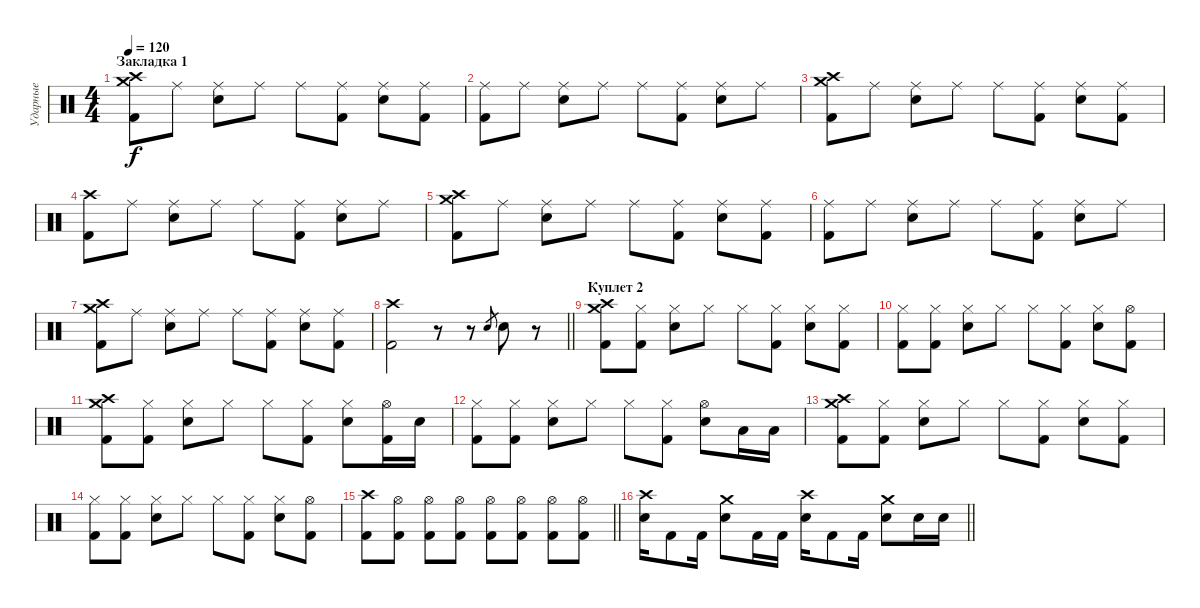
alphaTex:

\track ("Ударные" "Ударные") {instrument percussion}
\staff
\articulation defaults
\ts (4 4)
\section ("" "Закладка 1")
\tempo 120
\clef neutral
\ks c
("Crash medium (hit)" "Crash high (hit)" "Kick (hit) 2").8{dy f} "Ride (middle)".8 ("Ride (middle)" "Electric Snare (hit)").8 "Ride (middle)".8 "Ride (middle)".8 ("Ride (middle)" "Kick (hit) 2").8 ("Ride (middle)" "Electric Snare (hit)").8 ("Ride (middle)" "Kick (hit) 2").8 |
("Ride (middle)" "Kick (hit) 2").8 "Ride (middle)".8 ("Ride (middle)" "Electric Snare (hit)").8 "Ride (middle)".8 "Ride (middle)".8 ("Ride (middle)" "Kick (hit) 2").8 ("Ride (middle)" "Electric Snare (hit)").8 "Ride (middle)".8 |
("Crash medium (hit)" "Crash high (hit)" "Kick (hit) 2").8 "Ride (middle)".8 ("Ride (middle)" "Electric Snare (hit)").8 "Ride (middle)".8 "Ride (middle)".8 ("Ride (middle)" "Kick (hit) 2").8 ("Ride (middle)" "Electric Snare (hit)").8 ("Ride (middle)" "Kick (hit) 2").8 |
("Crash high (hit)" "Kick (hit) 2").8 "Ride (middle)".8 ("Ride (middle)" "Electric Snare (hit)").8 "Ride (middle)".8 "Ride (middle)".8 ("Ride (middle)" "Kick (hit) 2").8 ("Ride (middle)" "Electric Snare (hit)").8 "Ride (middle)".8 |
("Crash medium (hit)" "Crash high (hit)" "Kick (hit) 2").8 "Ride (middle)".8 ("Ride (middle)" "Electric Snare (hit)").8 "Ride (middle)".8 "Ride (middle)".8 ("Ride (middle)" "Kick (hit) 2").8 ("Ride (middle)" "Electric Snare (hit)").8 ("Ride (middle)" "Kick (hit) 2").8 |
("Ride (middle)" "Kick (hit) 2").8 "Ride (middle)".8 ("Ride (middle)" "Electric Snare (hit)").8 "Ride (middle)".8 "Ride (middle)".8 ("Ride (middle)" "Kick (hit) 2").8 ("Ride (middle)" "Electric Snare (hit)").8 "Ride (middle)".8 |
("Crash medium (hit)" "Crash high (hit)" "Kick (hit) 2").8 "Ride (middle)".8 ("Ride (middle)" "Electric Snare (hit)").8 "Ride (middle)".8 "Ride (middle)".8 ("Ride (middle)" "Kick (hit) 2").8 ("Ride (middle)" "Electric Snare (hit)").8 ("Ride (middle)" "Kick (hit) 2").8 |
\barLineRight lightlight
("Crash high (hit)" "Kick (hit) 2").2 r.8 r.8 "Electric Snare (hit)".8{gr} "Electric Snare (hit)".8 r.8 |
\section ("" "Куплет 2")
("Crash high (hit)" "Crash medium (hit)" "Kick (hit) 2").8 ("Hi-Hat (closed)" "Kick (hit) 2").8 ("Hi-Hat (closed)" "Electric Snare (hit)").8 "Hi-Hat (closed)".8 "Hi-Hat (closed)".8 ("Hi-Hat (closed)" "Kick (hit) 2").8 ("Hi-Hat (closed)" "Electric Snare (hit)").8 ("Hi-Hat (closed)" "Kick (hit) 2").8 |
("Hi-Hat (closed)" "Kick (hit) 2").8 ("Hi-Hat (closed)" "Kick (hit) 2").8 ("Hi-Hat (closed)" "Electric Snare (hit)").8 "Hi-Hat (closed)".8 "Hi-Hat (closed)".8 ("Hi-Hat (closed)" "Kick (hit) 2").8 ("Hi-Hat (closed)" "Electric Snare (hit)").8 ("Hi-Hat (open)" "Kick (hit) 2").8 |
("Crash high (hit)" "Crash medium (hit)" "Kick (hit) 2").8 ("Hi-Hat (closed)" "Kick (hit) 2").8 ("Hi-Hat (closed)" "Electric Snare (hit)").8 "Hi-Hat (closed)".8 "Hi-Hat (closed)".8 ("Hi-Hat (closed)" "Kick (hit) 2").8 ("Hi-Hat (closed)" "Electric Snare (hit)").8 ("Hi-Hat (open)" "Kick (hit) 2").16 "Electric Snare (hit)".16 |
("Hi-Hat (closed)" "Kick (hit) 2").8 ("Hi-Hat (closed)" "Kick (hit) 2").8 ("Hi-Hat (closed)" "Electric Snare (hit)").8 "Hi-Hat (closed)".8 "Hi-Hat (closed)".8 ("Hi-Hat (closed)" "Kick (hit) 2").8 ("Hi-Hat (open)" "Electric Snare (hit)").8 "Low Tom (hit)".16 "Low Tom (hit)".16 |
("Crash high (hit)" "Crash medium (hit)" "Kick (hit) 2").8 ("Hi-Hat (closed)" "Kick (hit) 2").8 ("Hi-Hat (closed)" "Electric Snare (hit)").8 "Hi-Hat (closed)".8 "Hi-Hat (closed)".8 ("Hi-Hat (closed)" "Kick (hit) 2").8 ("Hi-Hat (closed)" "Electric Snare (hit)").8 ("Hi-Hat (closed)" "Kick (hit) 2").8 |
("Hi-Hat (closed)" "Kick (hit) 2").8 ("Hi-Hat (closed)" "Kick (hit) 2").8 ("Hi-Hat (closed)" "Electric Snare (hit)").8 "Hi-Hat (closed)".8 "Hi-Hat (closed)".8 ("Hi-Hat (closed)" "Kick (hit) 2").8 ("Hi-Hat (closed)" "Electric Snare (hit)").8 ("Hi-Hat (open)" "Kick (hit) 2").8 |
\barLineRight lightlight
("Crash high (hit)" "Kick (hit) 2").8 ("Hi-Hat (open)" "Kick (hit) 2").8 ("Hi-Hat (open)" "Kick (hit) 2").8 ("Hi-Hat (open)" "Kick (hit) 2").8 ("Hi-Hat (open)" "Kick (hit) 2").8 ("Hi-Hat (open)" "Kick (hit) 2").8 ("Hi-Hat (open)" "Kick (hit) 2").8 ("Hi-Hat (open)" "Kick (hit) 2").8 |
\section ("" "")
\barLineRight lightlight
("Crash high (hit)" "Electric Snare (hit)").16 "Kick (hit) 2".8 "Kick (hit) 2".16 ("Crash medium (hit)" "Electric Snare (hit)").8 "Kick (hit) 2".16 "Kick (hit) 2".16 ("Crash high (hit)" "Electric Snare (hit)").16 "Kick (hit) 2".8 "Kick (hit) 2".16 ("Crash medium (hit)" "Electric Snare (hit)").8 "Electric Snare (hit)".16 "Electric Snare (hit)".16
